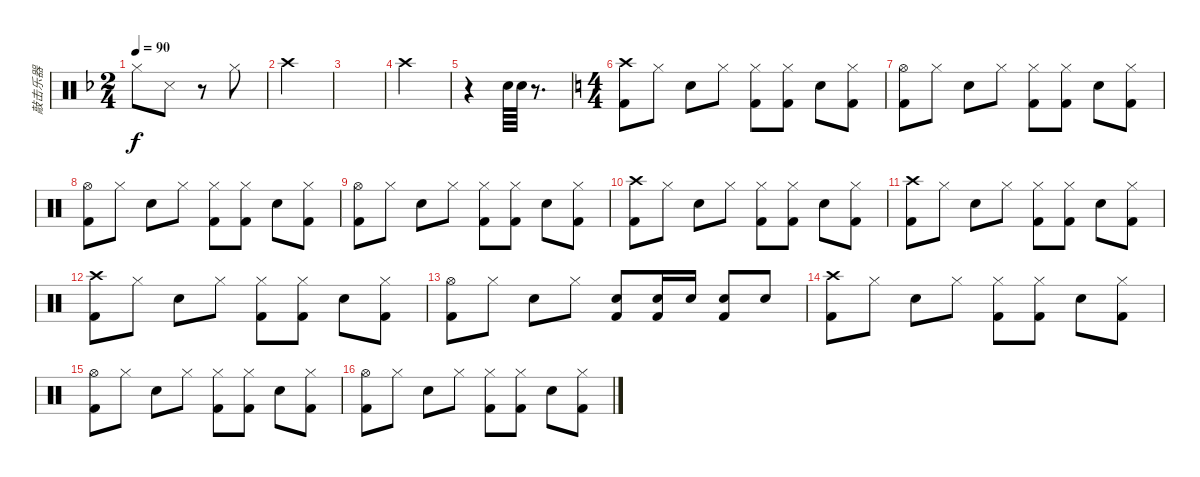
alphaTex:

\track ("敲击乐器" "敲击乐器") {instrument percussion bank 8}
\staff {score}
\articulation defaults
\ts (2 4)
\tempo 90
\clef neutral
\ks f "Hi-Hat (closed)".8{dy f} "Snare (side stick) 3".8
r.8 "Hi-Hat (closed)".8 |
"Crash high (hit)".2 |
|
"Crash high (hit)".2 |
r.4 "Electric Snare (hit)".64 "Electric Snare (hit)".64 r.8{d} |
\ts (4 4)
\ks c
("Crash high (hit)" "Kick (hit) 2").8 "Hi-Hat (closed)".8 "Electric Snare (hit)".8 "Hi-Hat (closed)".8 ("Hi-Hat (closed)" "Kick (hit) 2").8 ("Hi-Hat (closed)" "Kick (hit) 2").8 "Electric Snare (hit)".8 ("Hi-Hat (closed)" "Kick (hit) 2").8 |
("Hi-Hat (open)" "Kick (hit) 2").8 "Hi-Hat (closed)".8 "Electric Snare (hit)".8 "Hi-Hat (closed)".8 ("Hi-Hat (closed)" "Kick (hit) 2").8 ("Hi-Hat (closed)" "Kick (hit) 2").8 "Electric Snare (hit)".8 ("Hi-Hat (closed)" "Kick (hit) 2").8 |
("Hi-Hat (open)" "Kick (hit) 2").8 "Hi-Hat (closed)".8 "Electric Snare (hit)".8 "Hi-Hat (closed)".8 ("Hi-Hat (closed)" "Kick (hit) 2").8 ("Hi-Hat (closed)" "Kick (hit) 2").8 "Electric Snare (hit)".8 ("Hi-Hat (closed)" "Kick (hit) 2").8 |
("Hi-Hat (open)" "Kick (hit) 2").8 "Hi-Hat (closed)".8 "Electric Snare (hit)".8 "Hi-Hat (closed)".8 ("Hi-Hat (closed)" "Kick (hit) 2").8 ("Hi-Hat (closed)" "Kick (hit) 2").8 "Electric Snare (hit)".8 ("Hi-Hat (closed)" "Kick (hit) 2").8 |
("Crash high (hit)" "Kick (hit) 2").8 "Hi-Hat (closed)".8 "Electric Snare (hit)".8 "Hi-Hat (closed)".8 ("Hi-Hat (closed)" "Kick (hit) 2").8 ("Hi-Hat (closed)" "Kick (hit) 2").8 "Electric Snare (hit)".8 ("Hi-Hat (closed)" "Kick (hit) 2").8 |
("Crash high (hit)" "Kick (hit) 2").8 "Hi-Hat (closed)".8 "Electric Snare (hit)".8 "Hi-Hat (closed)".8 ("Hi-Hat (closed)" "Kick (hit) 2").8 ("Hi-Hat (closed)" "Kick (hit) 2").8 "Electric Snare (hit)".8 ("Hi-Hat (closed)" "Kick (hit) 2").8 |
("Crash high (hit)" "Kick (hit) 2").8 "Hi-Hat (closed)".8 "Electric Snare (hit)".8 "Hi-Hat (closed)".8 ("Hi-Hat (closed)" "Kick (hit) 2").8 ("Hi-Hat (closed)" "Kick (hit) 2").8 "Electric Snare (hit)".8 ("Hi-Hat (closed)" "Kick (hit) 2").8 |
("Hi-Hat (open)" "Kick (hit) 2").8 "Hi-Hat (closed)".8 "Electric Snare (hit)".8 "Hi-Hat (closed)".8 ("Electric Snare (hit)" "Kick (hit) 2").8 ("Electric Snare (hit)" "Kick (hit) 2").16 "Electric Snare (hit)".16 ("Electric Snare (hit)" "Kick (hit) 2").8 "Electric Snare (hit)".8 |
("Crash high (hit)" "Kick (hit) 2").8 "Hi-Hat (closed)".8 "Electric Snare (hit)".8 "Hi-Hat (closed)".8 ("Hi-Hat (closed)" "Kick (hit) 2").8 ("Hi-Hat (closed)" "Kick (hit) 2").8 "Electric Snare (hit)".8 ("Hi-Hat (closed)" "Kick (hit) 2").8 |
("Hi-Hat (open)" "Kick (hit) 2").8 "Hi-Hat (closed)".8 "Electric Snare (hit)".8 "Hi-Hat (closed)".8 ("Hi-Hat (closed)" "Kick (hit) 2").8 ("Hi-Hat (closed)" "Kick (hit) 2").8 "Electric Snare (hit)".8 ("Hi-Hat (closed)" "Kick (hit) 2").8 |
("Hi-Hat (open)" "Kick (hit) 2").8 "Hi-Hat (closed)".8 "Electric Snare (hit)".8 "Hi-Hat (closed)".8 ("Hi-Hat (closed)" "Kick (hit) 2").8 ("Hi-Hat (closed)" "Kick (hit) 2").8 "Electric Snare (hit)".8 ("Hi-Hat (closed)" "Kick (hit) 2").8
